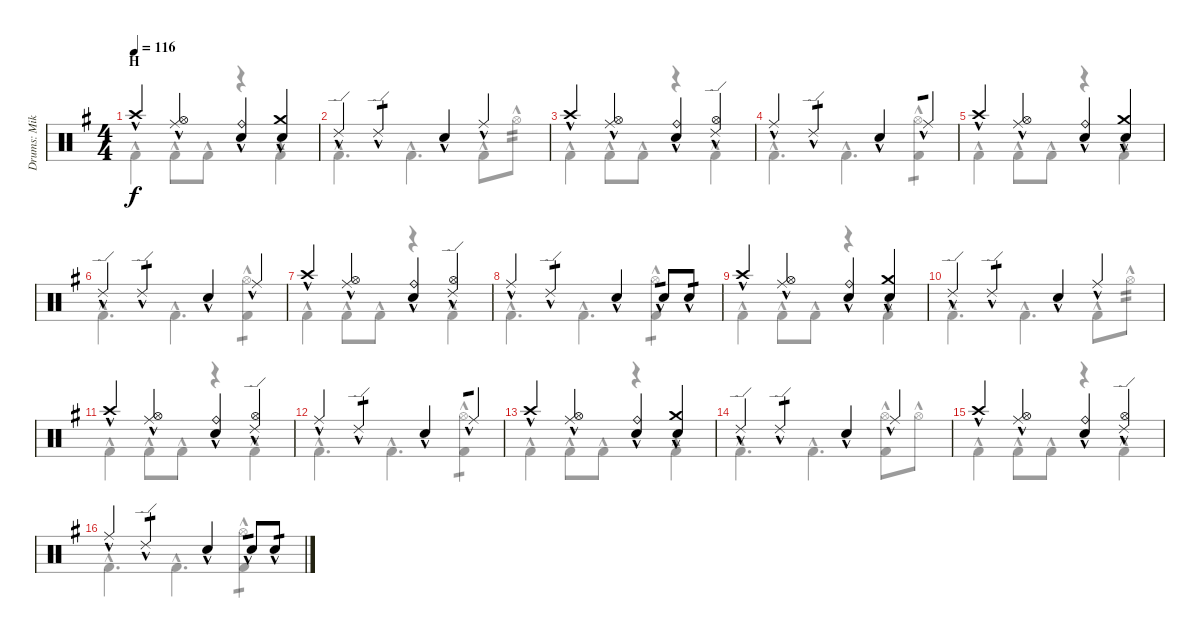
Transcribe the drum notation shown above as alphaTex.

\track ("Drums: Mike" "Drums: Mik") {instrument percussion}
\staff {score}
\articulation defaults
\voice
\ts (4 4)
\section ("" "H")
\tempo 116
\clef neutral
\ks g "Crash high (hit)"{hac}.4{dy f}
("Ride (middle)"{hac} "Hi-Hat (open)"{hac}).4 ("Ride (bell)"{hac} "Snare (hit) 2"{hac}).4 ("Crash medium (hit)"{hac} "Snare (hit) 2"{hac}).4 |
"Ride (edge) 2"{hac}.4 "Ride (edge) 2"{hac}.4{tp 1} "Snare (hit) 2"{hac}.4 "Ride (middle)"{hac}.4 |
"Crash high (hit)"{hac}.4 ("Ride (middle)"{hac} "Hi-Hat (open)"{hac}).4 ("Ride (bell)"{hac} "Snare (hit) 2"{hac}).4 ("Ride (edge) 2"{hac} "Hi-Hat (open)"{hac}).4 |
"Ride (middle)"{hac}.4 "Ride (edge) 2"{hac}.4{tp 1} "Snare (hit) 2"{hac}.4 "Ride (middle)"{hac}.4{tp 1} |
"Crash high (hit)"{hac}.4 ("Ride (middle)"{hac} "Hi-Hat (open)"{hac}).4 ("Ride (bell)"{hac} "Snare (hit) 2"{hac}).4 ("Crash medium (hit)"{hac} "Snare (hit) 2"{hac}).4 |
"Ride (edge) 2"{hac}.4 "Ride (edge) 2"{hac}.4{tp 1} "Snare (hit) 2"{hac}.4 "Ride (middle)"{hac}.4 |
"Crash high (hit)"{hac}.4 ("Ride (middle)"{hac} "Hi-Hat (open)"{hac}).4 ("Ride (bell)"{hac} "Snare (hit) 2"{hac}).4 ("Ride (edge) 2"{hac} "Hi-Hat (open)"{hac}).4 |
"Ride (middle)"{hac}.4 "Ride (edge) 2"{hac}.4{tp 1} "Snare (hit) 2"{hac}.4 "Snare (hit) 2"{hac}.8{tp 1} "Snare (hit) 2"{hac}.8{tp 1} |
"Crash high (hit)"{hac}.4 ("Ride (middle)"{hac} "Hi-Hat (open)"{hac}).4 ("Ride (bell)"{hac} "Snare (hit) 2"{hac}).4 ("Crash medium (hit)"{hac} "Snare (hit) 2"{hac}).4 |
"Ride (edge) 2"{hac}.4 "Ride (edge) 2"{hac}.4{tp 1} "Snare (hit) 2"{hac}.4 "Ride (middle)"{hac}.4 |
"Crash high (hit)"{hac}.4 ("Ride (middle)"{hac} "Hi-Hat (open)"{hac}).4 ("Ride (bell)"{hac} "Snare (hit) 2"{hac}).4 ("Ride (edge) 2"{hac} "Hi-Hat (open)"{hac}).4 |
"Ride (middle)"{hac}.4 "Ride (edge) 2"{hac}.4{tp 1} "Snare (hit) 2"{hac}.4 "Ride (middle)"{hac}.4{tp 1} |
"Crash high (hit)"{hac}.4 ("Ride (middle)"{hac} "Hi-Hat (open)"{hac}).4 ("Ride (bell)"{hac} "Snare (hit) 2"{hac}).4 ("Crash medium (hit)"{hac} "Snare (hit) 2"{hac}).4 |
"Ride (edge) 2"{hac}.4 "Ride (edge) 2"{hac}.4{tp 1} "Snare (hit) 2"{hac}.4 "Ride (middle)"{hac}.4 |
"Crash high (hit)"{hac}.4 ("Ride (middle)"{hac} "Hi-Hat (open)"{hac}).4 ("Ride (bell)"{hac} "Snare (hit) 2"{hac}).4 ("Ride (edge) 2"{hac} "Hi-Hat (open)"{hac}).4 |
"Ride (middle)"{hac}.4 "Ride (edge) 2"{hac}.4{tp 1} "Snare (hit) 2"{hac}.4 "Snare (hit) 2"{hac}.8{tp 1} "Snare (hit) 2"{hac}.8{tp 1}
\voice
\clef neutral
\ottava regular
\simile none
\ks g "Kick (hit) 2"{hac}.4{dy f} "Kick (hit) 2"{hac}.8 "Kick (hit) 2"{hac}.8
r.4 "Kick (hit) 2"{hac}.4 |
"Kick (hit) 2"{hac}.4{d} "Kick (hit) 2"{hac}.4{d} "Kick (hit) 2"{hac}.8 "Hi-Hat (open)"{hac}.8{tp 2} |
"Kick (hit) 2"{hac}.4 "Kick (hit) 2"{hac}.8 "Kick (hit) 2"{hac}.8 r.4 "Kick (hit) 2"{hac}.4 |
"Kick (hit) 2"{hac}.4{d} "Kick (hit) 2"{hac}.4{d} ("Hi-Hat (open)"{hac} "Kick (hit) 2"{hac}).4{tp 1} |
"Kick (hit) 2"{hac}.4 "Kick (hit) 2"{hac}.8 "Kick (hit) 2"{hac}.8 r.4 "Kick (hit) 2"{hac}.4 |
"Kick (hit) 2"{hac}.4{d} "Kick (hit) 2"{hac}.4{d} ("Hi-Hat (open)"{hac} "Kick (hit) 2"{hac}).4{tp 1} |
"Kick (hit) 2"{hac}.4 "Kick (hit) 2"{hac}.8 "Kick (hit) 2"{hac}.8 r.4 "Kick (hit) 2"{hac}.4 |
"Kick (hit) 2"{hac}.4{d} "Kick (hit) 2"{hac}.4{d} ("Hi-Hat (open)"{hac} "Kick (hit) 2"{hac}).4{tp 1} |
"Kick (hit) 2"{hac}.4 "Kick (hit) 2"{hac}.8 "Kick (hit) 2"{hac}.8 r.4 "Kick (hit) 2"{hac}.4 |
"Kick (hit) 2"{hac}.4{d} "Kick (hit) 2"{hac}.4{d} "Kick (hit) 2"{hac}.8 "Hi-Hat (open)"{hac}.8{tp 2} |
"Kick (hit) 2"{hac}.4 "Kick (hit) 2"{hac}.8 "Kick (hit) 2"{hac}.8 r.4 "Kick (hit) 2"{hac}.4 |
"Kick (hit) 2"{hac}.4{d} "Kick (hit) 2"{hac}.4{d} ("Hi-Hat (open)"{hac} "Kick (hit) 2"{hac}).4{tp 1} |
"Kick (hit) 2"{hac}.4 "Kick (hit) 2"{hac}.8 "Kick (hit) 2"{hac}.8 r.4 "Kick (hit) 2"{hac}.4 |
"Kick (hit) 2"{hac}.4{d} "Kick (hit) 2"{hac}.4{d} ("Hi-Hat (open)"{hac} "Kick (hit) 2"{hac}).8 "Hi-Hat (open)"{hac}.8 |
"Kick (hit) 2"{hac}.4 "Kick (hit) 2"{hac}.8 "Kick (hit) 2"{hac}.8 r.4 "Kick (hit) 2"{hac}.4 |
"Kick (hit) 2"{hac}.4{d} "Kick (hit) 2"{hac}.4{d} ("Hi-Hat (open)"{hac} "Kick (hit) 2"{hac}).4{tp 1}
